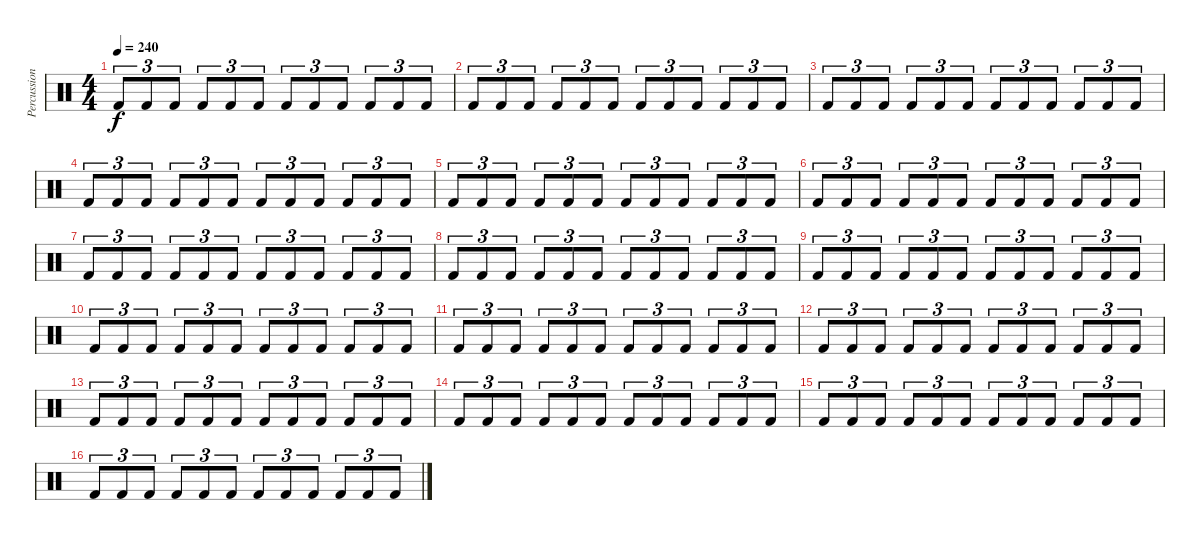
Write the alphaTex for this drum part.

\track ("Percussion" "Percussion") {instrument percussion}
\staff {score}
\articulation defaults
\ts (4 4)
\tempo 240
\clef neutral
\ks c "Kick (hit) 2".8{tu (3 2) dy f} "Kick (hit) 2".8{tu (3 2)} "Kick (hit) 2".8{tu (3 2)} "Kick (hit) 2".8{tu (3 2)} "Kick (hit) 2".8{tu (3 2)} "Kick (hit) 2".8{tu (3 2)} "Kick (hit) 2".8{tu (3 2)} "Kick (hit) 2".8{tu (3 2)} "Kick (hit) 2".8{tu (3 2)} "Kick (hit) 2".8{tu (3 2)} "Kick (hit) 2".8{tu (3 2)} "Kick (hit) 2".8{tu (3 2)}
|
"Kick (hit) 2".8{tu (3 2)} "Kick (hit) 2".8{tu (3 2)} "Kick (hit) 2".8{tu (3 2)} "Kick (hit) 2".8{tu (3 2)} "Kick (hit) 2".8{tu (3 2)} "Kick (hit) 2".8{tu (3 2)} "Kick (hit) 2".8{tu (3 2)} "Kick (hit) 2".8{tu (3 2)} "Kick (hit) 2".8{tu (3 2)} "Kick (hit) 2".8{tu (3 2)} "Kick (hit) 2".8{tu (3 2)} "Kick (hit) 2".8{tu (3 2)} |
"Kick (hit) 2".8{tu (3 2)} "Kick (hit) 2".8{tu (3 2)} "Kick (hit) 2".8{tu (3 2)} "Kick (hit) 2".8{tu (3 2)} "Kick (hit) 2".8{tu (3 2)} "Kick (hit) 2".8{tu (3 2)} "Kick (hit) 2".8{tu (3 2)} "Kick (hit) 2".8{tu (3 2)} "Kick (hit) 2".8{tu (3 2)} "Kick (hit) 2".8{tu (3 2)} "Kick (hit) 2".8{tu (3 2)} "Kick (hit) 2".8{tu (3 2)} |
"Kick (hit) 2".8{tu (3 2)} "Kick (hit) 2".8{tu (3 2)} "Kick (hit) 2".8{tu (3 2)} "Kick (hit) 2".8{tu (3 2)} "Kick (hit) 2".8{tu (3 2)} "Kick (hit) 2".8{tu (3 2)} "Kick (hit) 2".8{tu (3 2)} "Kick (hit) 2".8{tu (3 2)} "Kick (hit) 2".8{tu (3 2)} "Kick (hit) 2".8{tu (3 2)} "Kick (hit) 2".8{tu (3 2)} "Kick (hit) 2".8{tu (3 2)} |
"Kick (hit) 2".8{tu (3 2)} "Kick (hit) 2".8{tu (3 2)} "Kick (hit) 2".8{tu (3 2)} "Kick (hit) 2".8{tu (3 2)} "Kick (hit) 2".8{tu (3 2)} "Kick (hit) 2".8{tu (3 2)} "Kick (hit) 2".8{tu (3 2)} "Kick (hit) 2".8{tu (3 2)} "Kick (hit) 2".8{tu (3 2)} "Kick (hit) 2".8{tu (3 2)} "Kick (hit) 2".8{tu (3 2)} "Kick (hit) 2".8{tu (3 2)} |
"Kick (hit) 2".8{tu (3 2)} "Kick (hit) 2".8{tu (3 2)} "Kick (hit) 2".8{tu (3 2)} "Kick (hit) 2".8{tu (3 2)} "Kick (hit) 2".8{tu (3 2)} "Kick (hit) 2".8{tu (3 2)} "Kick (hit) 2".8{tu (3 2)} "Kick (hit) 2".8{tu (3 2)} "Kick (hit) 2".8{tu (3 2)} "Kick (hit) 2".8{tu (3 2)} "Kick (hit) 2".8{tu (3 2)} "Kick (hit) 2".8{tu (3 2)} |
"Kick (hit) 2".8{tu (3 2)} "Kick (hit) 2".8{tu (3 2)} "Kick (hit) 2".8{tu (3 2)} "Kick (hit) 2".8{tu (3 2)} "Kick (hit) 2".8{tu (3 2)} "Kick (hit) 2".8{tu (3 2)} "Kick (hit) 2".8{tu (3 2)} "Kick (hit) 2".8{tu (3 2)} "Kick (hit) 2".8{tu (3 2)} "Kick (hit) 2".8{tu (3 2)} "Kick (hit) 2".8{tu (3 2)} "Kick (hit) 2".8{tu (3 2)} |
"Kick (hit) 2".8{tu (3 2)} "Kick (hit) 2".8{tu (3 2)} "Kick (hit) 2".8{tu (3 2)} "Kick (hit) 2".8{tu (3 2)} "Kick (hit) 2".8{tu (3 2)} "Kick (hit) 2".8{tu (3 2)} "Kick (hit) 2".8{tu (3 2)} "Kick (hit) 2".8{tu (3 2)} "Kick (hit) 2".8{tu (3 2)} "Kick (hit) 2".8{tu (3 2)} "Kick (hit) 2".8{tu (3 2)} "Kick (hit) 2".8{tu (3 2)} |
"Kick (hit) 2".8{tu (3 2)} "Kick (hit) 2".8{tu (3 2)} "Kick (hit) 2".8{tu (3 2)} "Kick (hit) 2".8{tu (3 2)} "Kick (hit) 2".8{tu (3 2)} "Kick (hit) 2".8{tu (3 2)} "Kick (hit) 2".8{tu (3 2)} "Kick (hit) 2".8{tu (3 2)} "Kick (hit) 2".8{tu (3 2)} "Kick (hit) 2".8{tu (3 2)} "Kick (hit) 2".8{tu (3 2)} "Kick (hit) 2".8{tu (3 2)} |
"Kick (hit) 2".8{tu (3 2)} "Kick (hit) 2".8{tu (3 2)} "Kick (hit) 2".8{tu (3 2)} "Kick (hit) 2".8{tu (3 2)} "Kick (hit) 2".8{tu (3 2)} "Kick (hit) 2".8{tu (3 2)} "Kick (hit) 2".8{tu (3 2)} "Kick (hit) 2".8{tu (3 2)} "Kick (hit) 2".8{tu (3 2)} "Kick (hit) 2".8{tu (3 2)} "Kick (hit) 2".8{tu (3 2)} "Kick (hit) 2".8{tu (3 2)} |
"Kick (hit) 2".8{tu (3 2)} "Kick (hit) 2".8{tu (3 2)} "Kick (hit) 2".8{tu (3 2)} "Kick (hit) 2".8{tu (3 2)} "Kick (hit) 2".8{tu (3 2)} "Kick (hit) 2".8{tu (3 2)} "Kick (hit) 2".8{tu (3 2)} "Kick (hit) 2".8{tu (3 2)} "Kick (hit) 2".8{tu (3 2)} "Kick (hit) 2".8{tu (3 2)} "Kick (hit) 2".8{tu (3 2)} "Kick (hit) 2".8{tu (3 2)} |
"Kick (hit) 2".8{tu (3 2)} "Kick (hit) 2".8{tu (3 2)} "Kick (hit) 2".8{tu (3 2)} "Kick (hit) 2".8{tu (3 2)} "Kick (hit) 2".8{tu (3 2)} "Kick (hit) 2".8{tu (3 2)} "Kick (hit) 2".8{tu (3 2)} "Kick (hit) 2".8{tu (3 2)} "Kick (hit) 2".8{tu (3 2)} "Kick (hit) 2".8{tu (3 2)} "Kick (hit) 2".8{tu (3 2)} "Kick (hit) 2".8{tu (3 2)} |
"Kick (hit) 2".8{tu (3 2)} "Kick (hit) 2".8{tu (3 2)} "Kick (hit) 2".8{tu (3 2)} "Kick (hit) 2".8{tu (3 2)} "Kick (hit) 2".8{tu (3 2)} "Kick (hit) 2".8{tu (3 2)} "Kick (hit) 2".8{tu (3 2)} "Kick (hit) 2".8{tu (3 2)} "Kick (hit) 2".8{tu (3 2)} "Kick (hit) 2".8{tu (3 2)} "Kick (hit) 2".8{tu (3 2)} "Kick (hit) 2".8{tu (3 2)} |
"Kick (hit) 2".8{tu (3 2)} "Kick (hit) 2".8{tu (3 2)} "Kick (hit) 2".8{tu (3 2)} "Kick (hit) 2".8{tu (3 2)} "Kick (hit) 2".8{tu (3 2)} "Kick (hit) 2".8{tu (3 2)} "Kick (hit) 2".8{tu (3 2)} "Kick (hit) 2".8{tu (3 2)} "Kick (hit) 2".8{tu (3 2)} "Kick (hit) 2".8{tu (3 2)} "Kick (hit) 2".8{tu (3 2)} "Kick (hit) 2".8{tu (3 2)} |
"Kick (hit) 2".8{tu (3 2)} "Kick (hit) 2".8{tu (3 2)} "Kick (hit) 2".8{tu (3 2)} "Kick (hit) 2".8{tu (3 2)} "Kick (hit) 2".8{tu (3 2)} "Kick (hit) 2".8{tu (3 2)} "Kick (hit) 2".8{tu (3 2)} "Kick (hit) 2".8{tu (3 2)} "Kick (hit) 2".8{tu (3 2)} "Kick (hit) 2".8{tu (3 2)} "Kick (hit) 2".8{tu (3 2)} "Kick (hit) 2".8{tu (3 2)} |
"Kick (hit) 2".8{tu (3 2)} "Kick (hit) 2".8{tu (3 2)} "Kick (hit) 2".8{tu (3 2)} "Kick (hit) 2".8{tu (3 2)} "Kick (hit) 2".8{tu (3 2)} "Kick (hit) 2".8{tu (3 2)} "Kick (hit) 2".8{tu (3 2)} "Kick (hit) 2".8{tu (3 2)} "Kick (hit) 2".8{tu (3 2)} "Kick (hit) 2".8{tu (3 2)} "Kick (hit) 2".8{tu (3 2)} "Kick (hit) 2".8{tu (3 2)}
